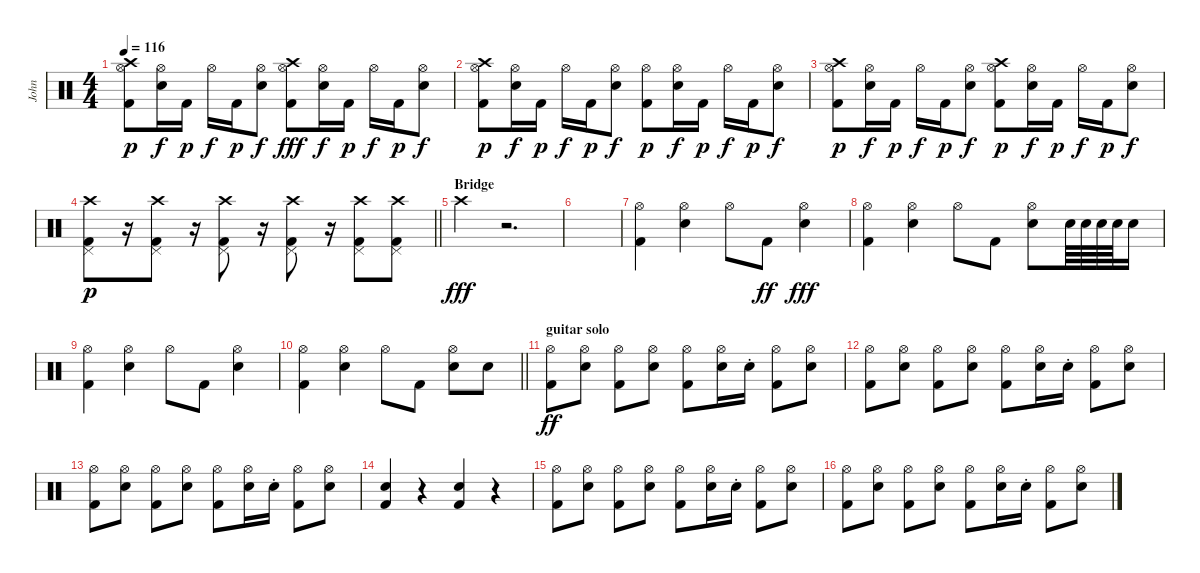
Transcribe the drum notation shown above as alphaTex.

\track ("John" "John") {instrument percussion}
\staff {score}
\articulation defaults
\ts (4 4)
\tempo 116
\clef neutral
\ks c
("Crash high (hit)" "Kick (hit) 2" "Hi-Hat (open)").8{dy p} ("Snare (hit) 2" "Hi-Hat (open)").16{dy f} "Kick (hit) 2".16{dy p} "Hi-Hat (open)".16{dy f} "Kick (hit) 2".16{dy p} ("Snare (hit) 2" "Hi-Hat (open)").8{dy f} ("Crash high (hit)" "Kick (hit) 2" "Hi-Hat (open)").8{dy fff} ("Snare (hit) 2" "Hi-Hat (open)").16{dy f} "Kick (hit) 2".16{dy p} "Hi-Hat (open)".16{dy f} "Kick (hit) 2".16{dy p} ("Snare (hit) 2" "Hi-Hat (open)").8{dy f} |
("Crash high (hit)" "Kick (hit) 2" "Hi-Hat (open)").8{dy p} ("Snare (hit) 2" "Hi-Hat (open)").16{dy f} "Kick (hit) 2".16{dy p} "Hi-Hat (open)".16{dy f} "Kick (hit) 2".16{dy p} ("Snare (hit) 2" "Hi-Hat (open)").8{dy f} ("Kick (hit) 2" "Hi-Hat (open)").8{dy p} ("Snare (hit) 2" "Hi-Hat (open)").16{dy f} "Kick (hit) 2".16{dy p} "Hi-Hat (open)".16{dy f} "Kick (hit) 2".16{dy p} ("Snare (hit) 2" "Hi-Hat (open)").8{dy f} |
("Crash high (hit)" "Kick (hit) 2" "Hi-Hat (open)").8{dy p} ("Snare (hit) 2" "Hi-Hat (open)").16{dy f} "Kick (hit) 2".16{dy p} "Hi-Hat (open)".16{dy f} "Kick (hit) 2".16{dy p} ("Snare (hit) 2" "Hi-Hat (open)").8{dy f} ("Crash high (hit)" "Kick (hit) 2" "Hi-Hat (open)").8{dy p} ("Snare (hit) 2" "Hi-Hat (open)").16{dy f} "Kick (hit) 2".16{dy p} "Hi-Hat (open)".16{dy f} "Kick (hit) 2".16{dy p} ("Snare (hit) 2" "Hi-Hat (open)").8{dy f} |
\barLineRight lightlight
("Crash high (hit)" "Kick (hit) 2" "Pedal Hi-Hat (hit)").8{dy p} r.16 ("Crash high (hit)" "Kick (hit) 2" "Pedal Hi-Hat (hit)").8 r.16 ("Crash high (hit)" "Kick (hit) 2" "Pedal Hi-Hat (hit)").8 r.16 ("Crash high (hit)" "Kick (hit) 2" "Pedal Hi-Hat (hit)").8 r.16 ("Crash high (hit)" "Kick (hit) 2" "Pedal Hi-Hat (hit)").8 ("Crash high (hit)" "Kick (hit) 2" "Pedal Hi-Hat (hit)").8 |
\section ("" "Bridge")
"Crash high (hit)".4{dy fff} r.2{d} |
|
("Kick (hit) 2" "Hi-Hat (open)").4 ("Snare (hit) 2" "Hi-Hat (open)").4 "Hi-Hat (open)".8 "Kick (hit) 2".8{dy ff} ("Snare (hit) 2" "Hi-Hat (open)").4{dy fff} |
("Kick (hit) 2" "Hi-Hat (open)").4 ("Snare (hit) 2" "Hi-Hat (open)").4 "Hi-Hat (open)".8 "Kick (hit) 2".8 ("Snare (hit) 2" "Hi-Hat (open)").8 "Snare (hit) 2".64 "Snare (hit) 2".64 "Snare (hit) 2".64 "Snare (hit) 2".64 "Snare (hit) 2".16 |
("Kick (hit) 2" "Hi-Hat (open)").4 ("Snare (hit) 2" "Hi-Hat (open)").4 "Hi-Hat (open)".8 "Kick (hit) 2".8 ("Snare (hit) 2" "Hi-Hat (open)").4 |
\barLineRight lightlight
("Kick (hit) 2" "Hi-Hat (open)").4 ("Snare (hit) 2" "Hi-Hat (open)").4 "Hi-Hat (open)".8 "Kick (hit) 2".8 ("Snare (hit) 2" "Hi-Hat (open)").8 "Snare (hit) 2".8 |
\section ("" "guitar solo")
("Kick (hit) 2" "Hi-Hat (open)").8{dy ff} ("Snare (hit) 2" "Hi-Hat (open)").8 ("Kick (hit) 2" "Hi-Hat (open)").8 ("Snare (hit) 2" "Hi-Hat (open)").8 ("Kick (hit) 2" "Hi-Hat (open)").8 ("Snare (hit) 2" "Hi-Hat (open)").16 "Snare (hit) 2"{st}.16 ("Kick (hit) 2" "Hi-Hat (open)").8 ("Snare (hit) 2" "Hi-Hat (open)").8 |
("Kick (hit) 2" "Hi-Hat (open)").8 ("Snare (hit) 2" "Hi-Hat (open)").8 ("Kick (hit) 2" "Hi-Hat (open)").8 ("Snare (hit) 2" "Hi-Hat (open)").8 ("Kick (hit) 2" "Hi-Hat (open)").8 ("Snare (hit) 2" "Hi-Hat (open)").16 "Snare (hit) 2"{st}.16 ("Kick (hit) 2" "Hi-Hat (open)").8 ("Snare (hit) 2" "Hi-Hat (open)").8 |
("Kick (hit) 2" "Hi-Hat (open)").8 ("Snare (hit) 2" "Hi-Hat (open)").8 ("Kick (hit) 2" "Hi-Hat (open)").8 ("Snare (hit) 2" "Hi-Hat (open)").8 ("Kick (hit) 2" "Hi-Hat (open)").8 ("Snare (hit) 2" "Hi-Hat (open)").16 "Snare (hit) 2"{st}.16 ("Kick (hit) 2" "Hi-Hat (open)").8 ("Snare (hit) 2" "Hi-Hat (open)").8 |
("Snare (hit) 2" "Kick (hit) 2").4 r.4 ("Snare (hit) 2" "Kick (hit) 2").4 r.4 |
("Kick (hit) 2" "Hi-Hat (open)").8 ("Snare (hit) 2" "Hi-Hat (open)").8 ("Kick (hit) 2" "Hi-Hat (open)").8 ("Snare (hit) 2" "Hi-Hat (open)").8 ("Kick (hit) 2" "Hi-Hat (open)").8 ("Snare (hit) 2" "Hi-Hat (open)").16 "Snare (hit) 2"{st}.16 ("Kick (hit) 2" "Hi-Hat (open)").8 ("Snare (hit) 2" "Hi-Hat (open)").8 |
("Kick (hit) 2" "Hi-Hat (open)").8 ("Snare (hit) 2" "Hi-Hat (open)").8 ("Kick (hit) 2" "Hi-Hat (open)").8 ("Snare (hit) 2" "Hi-Hat (open)").8 ("Kick (hit) 2" "Hi-Hat (open)").8 ("Snare (hit) 2" "Hi-Hat (open)").16 "Snare (hit) 2"{st}.16 ("Kick (hit) 2" "Hi-Hat (open)").8 ("Snare (hit) 2" "Hi-Hat (open)").8
